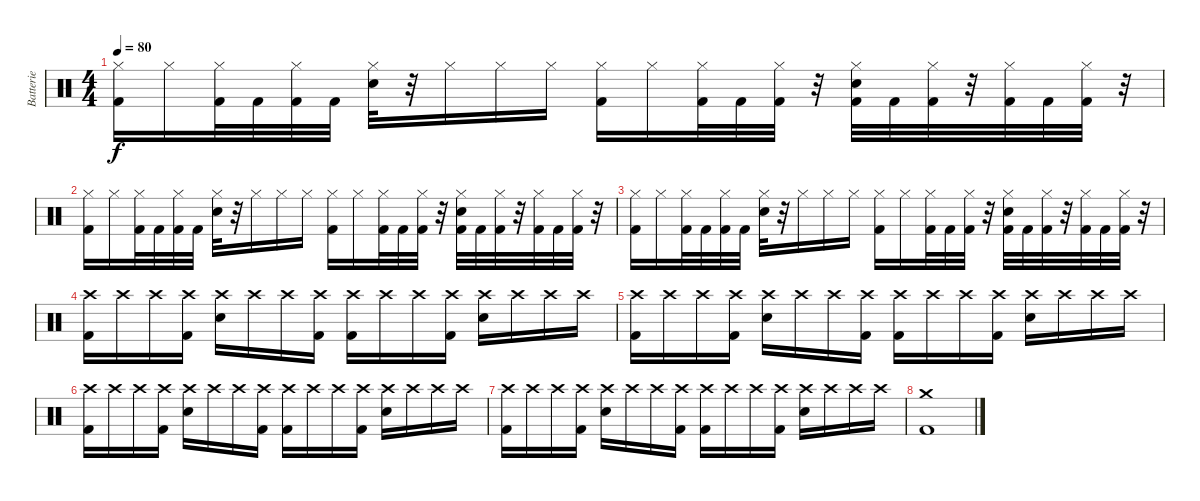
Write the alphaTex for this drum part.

\track ("Batterie" "Batterie") {instrument percussion}
\staff {score}
\articulation defaults
\ts (4 4)
\tempo 80
\clef neutral
\ks c
("Hi-Hat (closed)" "Kick (hit) 2").16{dy f} "Hi-Hat (closed)".16 ("Hi-Hat (closed)" "Kick (hit) 2").32 "Kick (hit) 2".32 ("Hi-Hat (closed)" "Kick (hit) 2").32 "Kick (hit) 2".32 ("Hi-Hat (closed)" "Snare (hit) 2").32 r.32 "Hi-Hat (closed)".16 "Hi-Hat (closed)".16 "Hi-Hat (closed)".16 ("Hi-Hat (closed)" "Kick (hit) 2").16 "Hi-Hat (closed)".16 ("Hi-Hat (closed)" "Kick (hit) 2").32 "Kick (hit) 2".32 ("Hi-Hat (closed)" "Kick (hit) 2").32 r.32 ("Hi-Hat (closed)" "Snare (hit) 2" "Kick (hit) 2").32 "Kick (hit) 2".32 ("Hi-Hat (closed)" "Kick (hit) 2").32 r.32 ("Hi-Hat (closed)" "Kick (hit) 2").32 "Kick (hit) 2".32 ("Hi-Hat (closed)" "Kick (hit) 2").32 r.32 |
("Hi-Hat (closed)" "Kick (hit) 2").16 "Hi-Hat (closed)".16 ("Hi-Hat (closed)" "Kick (hit) 2").32 "Kick (hit) 2".32 ("Hi-Hat (closed)" "Kick (hit) 2").32 "Kick (hit) 2".32 ("Hi-Hat (closed)" "Snare (hit) 2").32 r.32 "Hi-Hat (closed)".16 "Hi-Hat (closed)".16 "Hi-Hat (closed)".16 ("Hi-Hat (closed)" "Kick (hit) 2").16 "Hi-Hat (closed)".16 ("Hi-Hat (closed)" "Kick (hit) 2").32 "Kick (hit) 2".32 ("Hi-Hat (closed)" "Kick (hit) 2").32 r.32 ("Hi-Hat (closed)" "Snare (hit) 2" "Kick (hit) 2").32 "Kick (hit) 2".32 ("Hi-Hat (closed)" "Kick (hit) 2").32 r.32 ("Hi-Hat (closed)" "Kick (hit) 2").32 "Kick (hit) 2".32 ("Hi-Hat (closed)" "Kick (hit) 2").32 r.32 |
("Hi-Hat (closed)" "Kick (hit) 2").16 "Hi-Hat (closed)".16 ("Hi-Hat (closed)" "Kick (hit) 2").32 "Kick (hit) 2".32 ("Hi-Hat (closed)" "Kick (hit) 2").32 "Kick (hit) 2".32 ("Hi-Hat (closed)" "Snare (hit) 2").32 r.32 "Hi-Hat (closed)".16 "Hi-Hat (closed)".16 "Hi-Hat (closed)".16 ("Hi-Hat (closed)" "Kick (hit) 2").16 "Hi-Hat (closed)".16 ("Hi-Hat (closed)" "Kick (hit) 2").32 "Kick (hit) 2".32 ("Hi-Hat (closed)" "Kick (hit) 2").32 r.32 ("Hi-Hat (closed)" "Snare (hit) 2" "Kick (hit) 2").32 "Kick (hit) 2".32 ("Hi-Hat (closed)" "Kick (hit) 2").32 r.32 ("Hi-Hat (closed)" "Kick (hit) 2").32 "Kick (hit) 2".32 ("Hi-Hat (closed)" "Kick (hit) 2").32 r.32 |
("Crash high (hit)" "Kick (hit) 2").16 "Crash high (hit)".16 "Crash high (hit)".16 ("Crash high (hit)" "Kick (hit) 2").16 ("Crash high (hit)" "Snare (hit) 2").16 "Crash high (hit)".16 "Crash high (hit)".16 ("Crash high (hit)" "Kick (hit) 2").16 ("Crash high (hit)" "Kick (hit) 2").16 "Crash high (hit)".16 "Crash high (hit)".16 ("Crash high (hit)" "Kick (hit) 2").16 ("Crash high (hit)" "Snare (hit) 2").16 "Crash high (hit)".16 "Crash high (hit)".16 "Crash high (hit)".16 |
("Crash high (hit)" "Kick (hit) 2").16 "Crash high (hit)".16 "Crash high (hit)".16 ("Crash high (hit)" "Kick (hit) 2").16 ("Crash high (hit)" "Snare (hit) 2").16 "Crash high (hit)".16 "Crash high (hit)".16 ("Crash high (hit)" "Kick (hit) 2").16 ("Crash high (hit)" "Kick (hit) 2").16 "Crash high (hit)".16 "Crash high (hit)".16 ("Crash high (hit)" "Kick (hit) 2").16 ("Crash high (hit)" "Snare (hit) 2").16 "Crash high (hit)".16 "Crash high (hit)".16 "Crash high (hit)".16 |
("Crash high (hit)" "Kick (hit) 2").16 "Crash high (hit)".16 "Crash high (hit)".16 ("Crash high (hit)" "Kick (hit) 2").16 ("Crash high (hit)" "Snare (hit) 2").16 "Crash high (hit)".16 "Crash high (hit)".16 ("Crash high (hit)" "Kick (hit) 2").16 ("Crash high (hit)" "Kick (hit) 2").16 "Crash high (hit)".16 "Crash high (hit)".16 ("Crash high (hit)" "Kick (hit) 2").16 ("Crash high (hit)" "Snare (hit) 2").16 "Crash high (hit)".16 "Crash high (hit)".16 "Crash high (hit)".16 |
("Crash high (hit)" "Kick (hit) 2").16 "Crash high (hit)".16 "Crash high (hit)".16 ("Crash high (hit)" "Kick (hit) 2").16 ("Crash high (hit)" "Snare (hit) 2").16 "Crash high (hit)".16 "Crash high (hit)".16 ("Crash high (hit)" "Kick (hit) 2").16 ("Crash high (hit)" "Kick (hit) 2").16 "Crash high (hit)".16 "Crash high (hit)".16 ("Crash high (hit)" "Kick (hit) 2").16 ("Crash high (hit)" "Snare (hit) 2").16 "Crash high (hit)".16 "Crash high (hit)".16 "Crash high (hit)".16 |
("Crash medium (hit)" "Kick (hit) 2").1
